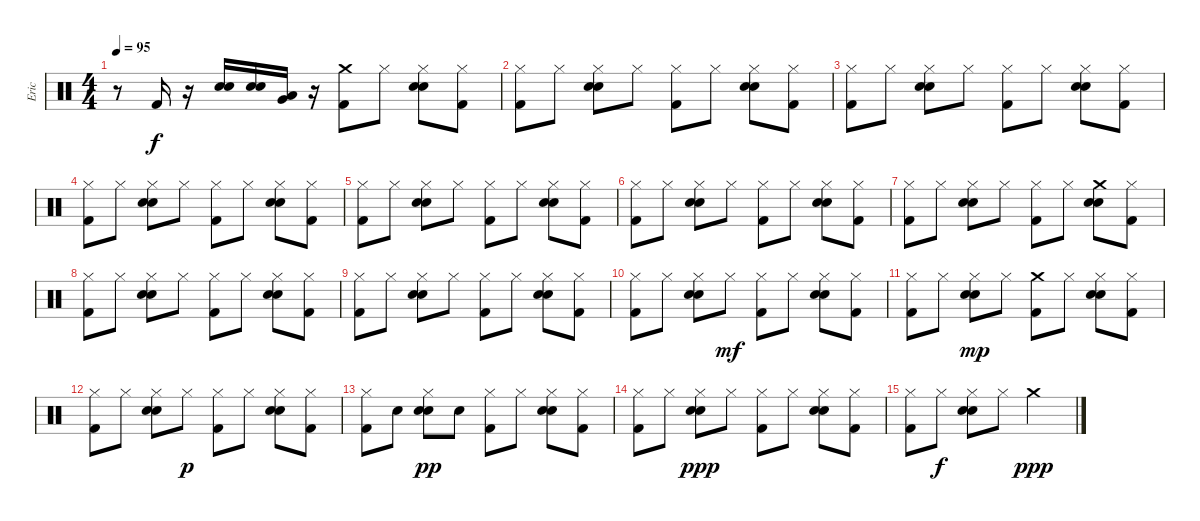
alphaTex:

\track ("Eric" "Eric") {instrument percussion}
\staff {score}
\articulation defaults
\ts (4 4)
\tempo 95
\clef neutral
\ks c
r.8{dy f} "Kick (hit) 2".16 r.16 ("Snare (hit) 2" "Electric Snare (hit)").16 ("Snare (hit) 2" "Electric Snare (hit)").16 ("Very Low Tom (hit)" "Low Floor Tom (hit)").16 r.16 ("Crash medium (hit)" "Kick (hit) 2").8 "Hi-Hat (closed)".8 ("Hi-Hat (closed)" "Electric Snare (hit)" "Snare (hit) 2").8 ("Hi-Hat (closed)" "Kick (hit) 2").8 |
("Hi-Hat (closed)" "Kick (hit) 2").8 "Hi-Hat (closed)".8 ("Hi-Hat (closed)" "Electric Snare (hit)" "Snare (hit) 2").8 "Hi-Hat (closed)".8 ("Hi-Hat (closed)" "Kick (hit) 2").8 "Hi-Hat (closed)".8 ("Hi-Hat (closed)" "Electric Snare (hit)" "Snare (hit) 2").8 ("Hi-Hat (closed)" "Kick (hit) 2").8 |
("Hi-Hat (closed)" "Kick (hit) 2").8 "Hi-Hat (closed)".8 ("Hi-Hat (closed)" "Electric Snare (hit)" "Snare (hit) 2").8 "Hi-Hat (closed)".8 ("Hi-Hat (closed)" "Kick (hit) 2").8 "Hi-Hat (closed)".8 ("Hi-Hat (closed)" "Electric Snare (hit)" "Snare (hit) 2").8 ("Hi-Hat (closed)" "Kick (hit) 2").8 |
("Hi-Hat (closed)" "Kick (hit) 2").8 "Hi-Hat (closed)".8 ("Hi-Hat (closed)" "Electric Snare (hit)" "Snare (hit) 2").8 "Hi-Hat (closed)".8 ("Hi-Hat (closed)" "Kick (hit) 2").8 "Hi-Hat (closed)".8 ("Hi-Hat (closed)" "Electric Snare (hit)" "Snare (hit) 2").8 ("Hi-Hat (closed)" "Kick (hit) 2").8 |
("Hi-Hat (closed)" "Kick (hit) 2").8 "Hi-Hat (closed)".8 ("Hi-Hat (closed)" "Electric Snare (hit)" "Snare (hit) 2").8 "Hi-Hat (closed)".8 ("Hi-Hat (closed)" "Kick (hit) 2").8 "Hi-Hat (closed)".8 ("Hi-Hat (closed)" "Electric Snare (hit)" "Snare (hit) 2").8 ("Hi-Hat (closed)" "Kick (hit) 2").8 |
("Hi-Hat (closed)" "Kick (hit) 2").8 "Hi-Hat (closed)".8 ("Hi-Hat (closed)" "Electric Snare (hit)" "Snare (hit) 2").8 "Hi-Hat (closed)".8 ("Hi-Hat (closed)" "Kick (hit) 2").8 "Hi-Hat (closed)".8 ("Hi-Hat (closed)" "Electric Snare (hit)" "Snare (hit) 2").8 ("Hi-Hat (closed)" "Kick (hit) 2").8 |
("Hi-Hat (closed)" "Kick (hit) 2").8 "Hi-Hat (closed)".8 ("Hi-Hat (closed)" "Electric Snare (hit)" "Snare (hit) 2").8 "Hi-Hat (closed)".8 ("Hi-Hat (closed)" "Kick (hit) 2").8 "Hi-Hat (closed)".8 ("Crash medium (hit)" "Electric Snare (hit)" "Snare (hit) 2").8 ("Hi-Hat (closed)" "Kick (hit) 2").8 |
("Hi-Hat (closed)" "Kick (hit) 2").8 "Hi-Hat (closed)".8 ("Hi-Hat (closed)" "Electric Snare (hit)" "Snare (hit) 2").8 "Hi-Hat (closed)".8 ("Hi-Hat (closed)" "Kick (hit) 2").8 "Hi-Hat (closed)".8 ("Hi-Hat (closed)" "Electric Snare (hit)" "Snare (hit) 2").8 ("Hi-Hat (closed)" "Kick (hit) 2").8 |
("Hi-Hat (closed)" "Kick (hit) 2").8 "Hi-Hat (closed)".8 ("Hi-Hat (closed)" "Electric Snare (hit)" "Snare (hit) 2").8 "Hi-Hat (closed)".8 ("Hi-Hat (closed)" "Kick (hit) 2").8 "Hi-Hat (closed)".8 ("Hi-Hat (closed)" "Electric Snare (hit)" "Snare (hit) 2").8 ("Hi-Hat (closed)" "Kick (hit) 2").8 |
("Hi-Hat (closed)" "Kick (hit) 2").8 "Hi-Hat (closed)".8 ("Hi-Hat (closed)" "Electric Snare (hit)" "Snare (hit) 2").8 "Hi-Hat (closed)".8{dy mf} ("Hi-Hat (closed)" "Kick (hit) 2").8 "Hi-Hat (closed)".8 ("Hi-Hat (closed)" "Electric Snare (hit)" "Snare (hit) 2").8 ("Hi-Hat (closed)" "Kick (hit) 2").8 |
("Hi-Hat (closed)" "Kick (hit) 2").8 "Hi-Hat (closed)".8 ("Hi-Hat (closed)" "Electric Snare (hit)" "Snare (hit) 2").8{dy mp} "Hi-Hat (closed)".8 ("Crash medium (hit)" "Kick (hit) 2").8 "Hi-Hat (closed)".8 ("Hi-Hat (closed)" "Electric Snare (hit)" "Snare (hit) 2").8 ("Hi-Hat (closed)" "Kick (hit) 2").8 |
("Hi-Hat (closed)" "Kick (hit) 2").8 "Hi-Hat (closed)".8 ("Hi-Hat (closed)" "Electric Snare (hit)" "Snare (hit) 2").8 "Hi-Hat (closed)".8{dy p} ("Hi-Hat (closed)" "Kick (hit) 2").8 "Hi-Hat (closed)".8 ("Hi-Hat (closed)" "Electric Snare (hit)" "Snare (hit) 2").8 ("Hi-Hat (closed)" "Kick (hit) 2").8 |
("Hi-Hat (closed)" "Kick (hit) 2").8 "Snare (hit)".8 ("Hi-Hat (closed)" "Electric Snare (hit)" "Snare (hit) 2").8{dy pp} "Snare (hit)".8 ("Hi-Hat (closed)" "Kick (hit) 2").8 "Hi-Hat (closed)".8 ("Hi-Hat (closed)" "Electric Snare (hit)" "Snare (hit) 2").8 ("Hi-Hat (closed)" "Kick (hit) 2").8 |
("Hi-Hat (closed)" "Kick (hit) 2").8 "Hi-Hat (closed)".8 ("Hi-Hat (closed)" "Electric Snare (hit)" "Snare (hit) 2").8{dy ppp} "Hi-Hat (closed)".8 ("Hi-Hat (closed)" "Kick (hit) 2").8 "Hi-Hat (closed)".8 ("Hi-Hat (closed)" "Electric Snare (hit)" "Snare (hit) 2").8 ("Hi-Hat (closed)" "Kick (hit) 2").8 |
("Hi-Hat (closed)" "Kick (hit) 2").8 "Hi-Hat (closed)".8{dy f} ("Hi-Hat (closed)" "Electric Snare (hit)" "Snare (hit) 2").8 "Hi-Hat (closed)".8 "Crash medium (hit)".2{dy ppp}
